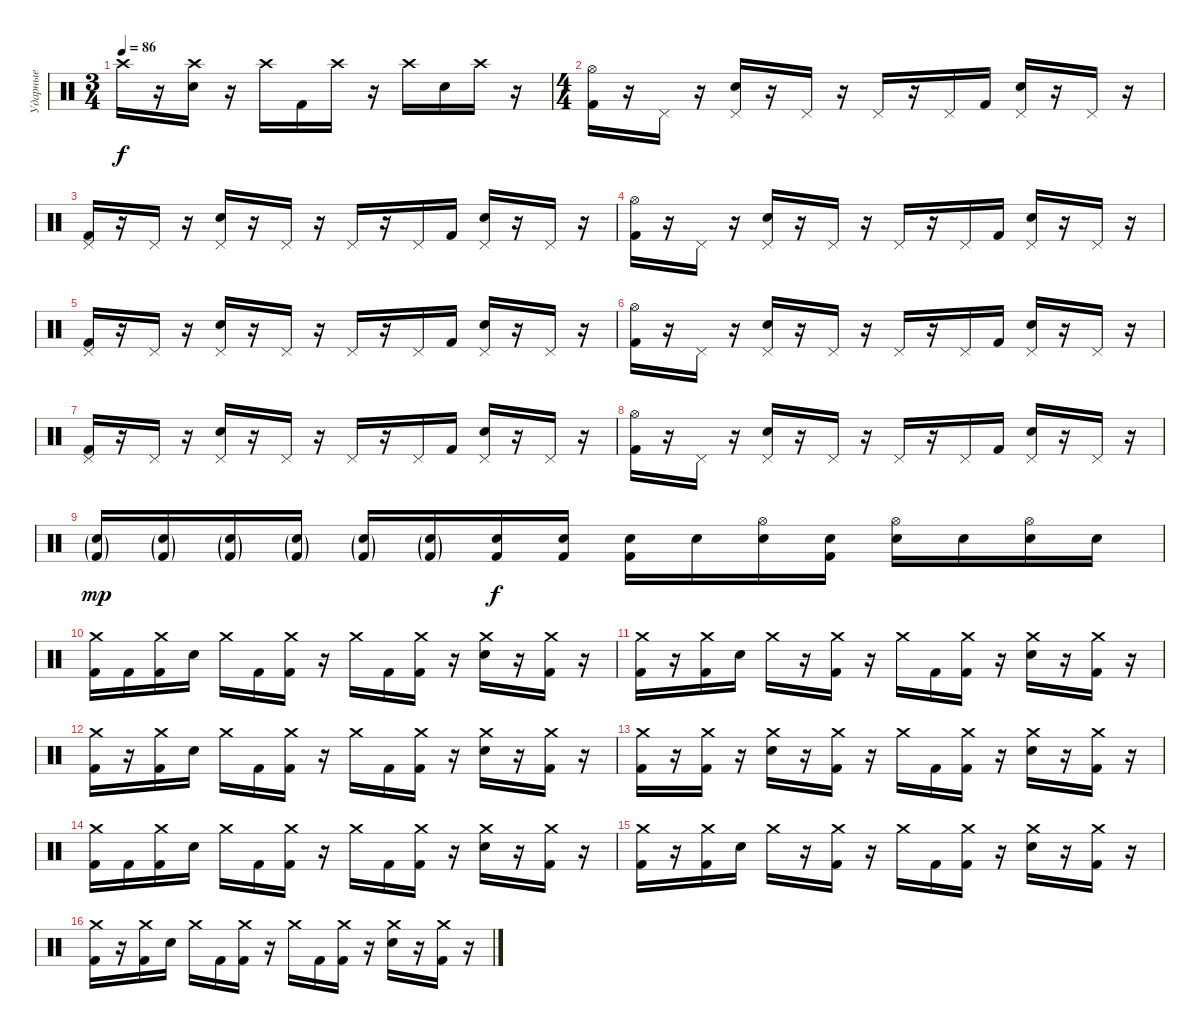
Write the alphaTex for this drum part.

\track ("Ударные" "Ударные") {instrument percussion}
\staff {score}
\articulation defaults
\ts (3 4)
\tempo 86
\clef neutral
\ks c "Crash high (hit)".16{dy f}
r.16 ("Crash high (hit)" "Electric Snare (hit)").16 r.16 "Crash high (hit)".16 "Kick (hit) 2".16 "Crash high (hit)".16 r.16 "Crash high (hit)".16 "Electric Snare (hit)".16 "Crash high (hit)".16 r.16 |
\ts (4 4)
("Hi-Hat (open)" "Kick (hit) 2").16 r.16 "Pedal Hi-Hat (hit)".16 r.16 ("Pedal Hi-Hat (hit)" "Electric Snare (hit)").16 r.16 "Pedal Hi-Hat (hit)".16 r.16 "Pedal Hi-Hat (hit)".16 r.16 "Pedal Hi-Hat (hit)".16 "Kick (hit) 2".16 ("Pedal Hi-Hat (hit)" "Electric Snare (hit)").16 r.16 "Pedal Hi-Hat (hit)".16 r.16 |
("Pedal Hi-Hat (hit)" "Kick (hit) 2").16 r.16 "Pedal Hi-Hat (hit)".16 r.16 ("Pedal Hi-Hat (hit)" "Electric Snare (hit)").16 r.16 "Pedal Hi-Hat (hit)".16 r.16 "Pedal Hi-Hat (hit)".16 r.16 "Pedal Hi-Hat (hit)".16 "Kick (hit) 2".16 ("Pedal Hi-Hat (hit)" "Electric Snare (hit)").16 r.16 "Pedal Hi-Hat (hit)".16 r.16 |
("Hi-Hat (open)" "Kick (hit) 2").16 r.16 "Pedal Hi-Hat (hit)".16 r.16 ("Pedal Hi-Hat (hit)" "Electric Snare (hit)").16 r.16 "Pedal Hi-Hat (hit)".16 r.16 "Pedal Hi-Hat (hit)".16 r.16 "Pedal Hi-Hat (hit)".16 "Kick (hit) 2".16 ("Pedal Hi-Hat (hit)" "Electric Snare (hit)").16 r.16 "Pedal Hi-Hat (hit)".16 r.16 |
("Pedal Hi-Hat (hit)" "Kick (hit) 2").16 r.16 "Pedal Hi-Hat (hit)".16 r.16 ("Pedal Hi-Hat (hit)" "Electric Snare (hit)").16 r.16 "Pedal Hi-Hat (hit)".16 r.16 "Pedal Hi-Hat (hit)".16 r.16 "Pedal Hi-Hat (hit)".16 "Kick (hit) 2".16 ("Pedal Hi-Hat (hit)" "Electric Snare (hit)").16 r.16 "Pedal Hi-Hat (hit)".16 r.16 |
("Hi-Hat (open)" "Kick (hit) 2").16 r.16 "Pedal Hi-Hat (hit)".16 r.16 ("Pedal Hi-Hat (hit)" "Electric Snare (hit)").16 r.16 "Pedal Hi-Hat (hit)".16 r.16 "Pedal Hi-Hat (hit)".16 r.16 "Pedal Hi-Hat (hit)".16 "Kick (hit) 2".16 ("Pedal Hi-Hat (hit)" "Electric Snare (hit)").16 r.16 "Pedal Hi-Hat (hit)".16 r.16 |
("Pedal Hi-Hat (hit)" "Kick (hit) 2").16 r.16 "Pedal Hi-Hat (hit)".16 r.16 ("Pedal Hi-Hat (hit)" "Electric Snare (hit)").16 r.16 "Pedal Hi-Hat (hit)".16 r.16 "Pedal Hi-Hat (hit)".16 r.16 "Pedal Hi-Hat (hit)".16 "Kick (hit) 2".16 ("Pedal Hi-Hat (hit)" "Electric Snare (hit)").16 r.16 "Pedal Hi-Hat (hit)".16 r.16 |
("Hi-Hat (open)" "Kick (hit) 2").16 r.16 "Pedal Hi-Hat (hit)".16 r.16 ("Pedal Hi-Hat (hit)" "Electric Snare (hit)").16 r.16 "Pedal Hi-Hat (hit)".16 r.16 "Pedal Hi-Hat (hit)".16 r.16 "Pedal Hi-Hat (hit)".16 "Kick (hit) 2".16 ("Pedal Hi-Hat (hit)" "Electric Snare (hit)").16 r.16 "Pedal Hi-Hat (hit)".16 r.16 |
("Electric Snare (hit)"{g} "Kick (hit) 2"{g}).16{dy mp} ("Electric Snare (hit)"{g} "Kick (hit) 2"{g}).16 ("Electric Snare (hit)"{g} "Kick (hit) 2"{g}).16 ("Electric Snare (hit)"{g} "Kick (hit) 2"{g}).16 ("Electric Snare (hit)"{g} "Kick (hit) 2"{g}).16 ("Electric Snare (hit)"{g} "Kick (hit) 2"{g}).16 ("Electric Snare (hit)" "Kick (hit) 2").16{dy f} ("Electric Snare (hit)" "Kick (hit) 2").16 ("Electric Snare (hit)" "Kick (hit) 2").16 "Electric Snare (hit)".16 ("Hi-Hat (open)" "Electric Snare (hit)").16 ("Electric Snare (hit)" "Kick (hit) 2").16 ("Hi-Hat (open)" "Electric Snare (hit)").16 "Electric Snare (hit)".16 ("Hi-Hat (open)" "Electric Snare (hit)").16 "Electric Snare (hit)".16 |
("Crash medium (hit)" "Kick (hit) 2").16 "Kick (hit) 2".16 ("Crash medium (hit)" "Kick (hit) 2").16 "Electric Snare (hit)".16 "Crash medium (hit)".16 "Kick (hit) 2".16 ("Crash medium (hit)" "Kick (hit) 2").16 r.16 "Crash medium (hit)".16 "Kick (hit) 2".16 ("Crash medium (hit)" "Kick (hit) 2").16 r.16 ("Crash medium (hit)" "Electric Snare (hit)").16 r.16 ("Crash medium (hit)" "Kick (hit) 2").16 r.16 |
("Crash medium (hit)" "Kick (hit) 2").16 r.16 ("Crash medium (hit)" "Kick (hit) 2").16 "Electric Snare (hit)".16 "Crash medium (hit)".16 r.16 ("Crash medium (hit)" "Kick (hit) 2").16 r.16 "Crash medium (hit)".16 "Kick (hit) 2".16 ("Crash medium (hit)" "Kick (hit) 2").16 r.16 ("Crash medium (hit)" "Electric Snare (hit)").16 r.16 ("Crash medium (hit)" "Kick (hit) 2").16 r.16 |
("Crash medium (hit)" "Kick (hit) 2").16 r.16 ("Crash medium (hit)" "Kick (hit) 2").16 "Electric Snare (hit)".16 "Crash medium (hit)".16 "Kick (hit) 2".16 ("Crash medium (hit)" "Kick (hit) 2").16 r.16 "Crash medium (hit)".16 "Kick (hit) 2".16 ("Crash medium (hit)" "Kick (hit) 2").16 r.16 ("Crash medium (hit)" "Electric Snare (hit)").16 r.16 ("Crash medium (hit)" "Kick (hit) 2").16 r.16 |
("Crash medium (hit)" "Kick (hit) 2").16 r.16 ("Crash medium (hit)" "Kick (hit) 2").16 r.16 ("Crash medium (hit)" "Electric Snare (hit)").16 r.16 ("Crash medium (hit)" "Kick (hit) 2").16 r.16 "Crash medium (hit)".16 "Kick (hit) 2".16 ("Crash medium (hit)" "Kick (hit) 2").16 r.16 ("Crash medium (hit)" "Electric Snare (hit)").16 r.16 ("Crash medium (hit)" "Kick (hit) 2").16 r.16 |
("Crash medium (hit)" "Kick (hit) 2").16 "Kick (hit) 2".16 ("Crash medium (hit)" "Kick (hit) 2").16 "Electric Snare (hit)".16 "Crash medium (hit)".16 "Kick (hit) 2".16 ("Crash medium (hit)" "Kick (hit) 2").16 r.16 "Crash medium (hit)".16 "Kick (hit) 2".16 ("Crash medium (hit)" "Kick (hit) 2").16 r.16 ("Crash medium (hit)" "Electric Snare (hit)").16 r.16 ("Crash medium (hit)" "Kick (hit) 2").16 r.16 |
("Crash medium (hit)" "Kick (hit) 2").16 r.16 ("Crash medium (hit)" "Kick (hit) 2").16 "Electric Snare (hit)".16 "Crash medium (hit)".16 r.16 ("Crash medium (hit)" "Kick (hit) 2").16 r.16 "Crash medium (hit)".16 "Kick (hit) 2".16 ("Crash medium (hit)" "Kick (hit) 2").16 r.16 ("Crash medium (hit)" "Electric Snare (hit)").16 r.16 ("Crash medium (hit)" "Kick (hit) 2").16 r.16 |
("Crash medium (hit)" "Kick (hit) 2").16 r.16 ("Crash medium (hit)" "Kick (hit) 2").16 "Electric Snare (hit)".16 "Crash medium (hit)".16 "Kick (hit) 2".16 ("Crash medium (hit)" "Kick (hit) 2").16 r.16 "Crash medium (hit)".16 "Kick (hit) 2".16 ("Crash medium (hit)" "Kick (hit) 2").16 r.16 ("Crash medium (hit)" "Electric Snare (hit)").16 r.16 ("Crash medium (hit)" "Kick (hit) 2").16 r.16
